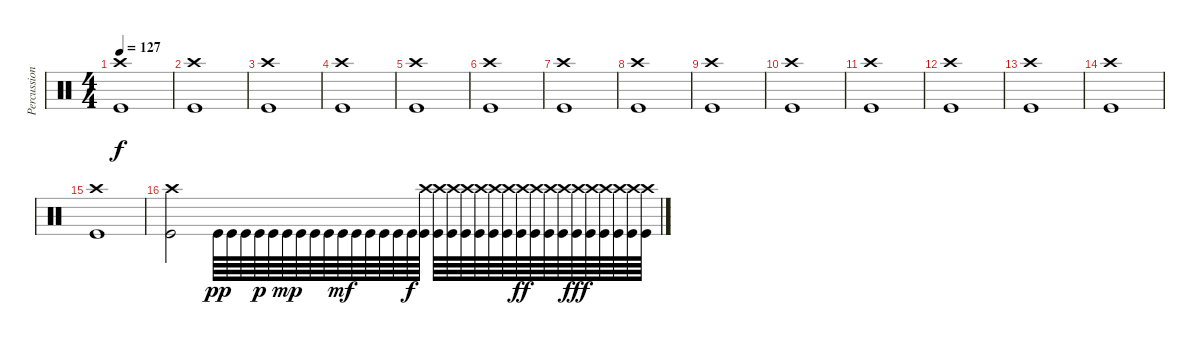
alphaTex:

\track ("Percussion" "Percussion") {instrument percussion}
\staff {score}
\articulation defaults
\ts (4 4)
\tempo 127
\clef neutral
\ks c
("Crash high (hit)" "Kick (hit)").1{dy f} |
("Crash high (hit)" "Kick (hit)").1 |
("Crash high (hit)" "Kick (hit)").1 |
("Crash high (hit)" "Kick (hit)").1 |
("Crash high (hit)" "Kick (hit)").1 |
("Crash high (hit)" "Kick (hit)").1 |
("Crash high (hit)" "Kick (hit)").1 |
("Crash high (hit)" "Kick (hit)").1 |
("Crash high (hit)" "Kick (hit)").1 |
("Crash high (hit)" "Kick (hit)").1 |
("Crash high (hit)" "Kick (hit)").1 |
("Crash high (hit)" "Kick (hit)").1 |
("Crash high (hit)" "Kick (hit)").1 |
("Crash high (hit)" "Kick (hit)").1 |
("Crash high (hit)" "Kick (hit)").1 |
("Crash high (hit)" "Kick (hit)").2 "Kick (hit)".64{dy pp} "Kick (hit)".64 "Kick (hit)".64 "Kick (hit)".64{dy p} "Kick (hit)".64 "Kick (hit)".64{dy mp} "Kick (hit)".64 "Kick (hit)".64 "Kick (hit)".64 "Kick (hit)".64{dy mf} "Kick (hit)".64 "Kick (hit)".64 "Kick (hit)".64 "Kick (hit)".64 "Kick (hit)".64{dy f} ("Crash high (hit)" "Kick (hit)").64 ("Crash high (hit)" "Kick (hit)").64 ("Crash high (hit)" "Kick (hit)").64 ("Crash high (hit)" "Kick (hit)").64 ("Crash high (hit)" "Kick (hit)").64 ("Crash high (hit)" "Kick (hit)").64 ("Crash high (hit)" "Kick (hit)").64 ("Crash high (hit)" "Kick (hit)").64{dy ff} ("Crash high (hit)" "Kick (hit)").64 ("Crash high (hit)" "Kick (hit)").64 ("Crash high (hit)" "Kick (hit)").64 ("Crash high (hit)" "Kick (hit)").64{dy fff} ("Crash high (hit)" "Kick (hit)").64 ("Crash high (hit)" "Kick (hit)").64 ("Crash high (hit)" "Kick (hit)").64 ("Crash high (hit)" "Kick (hit)").64 ("Crash high (hit)" "Kick (hit)").64
